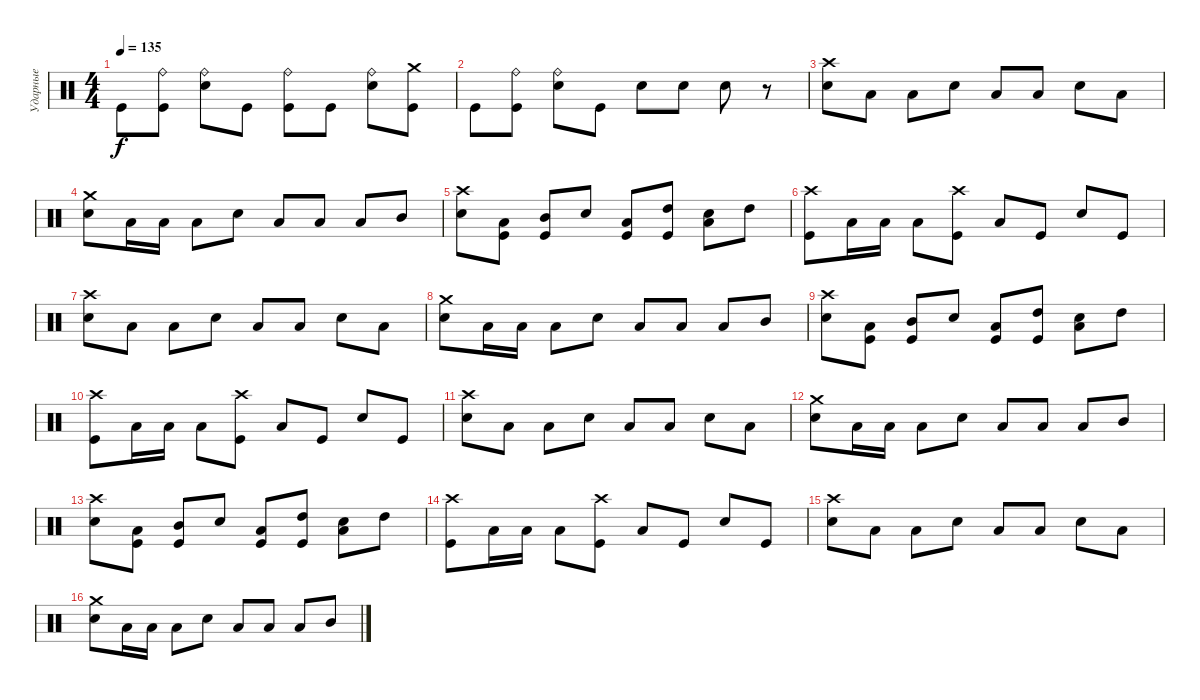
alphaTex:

\track ("Ударные" "Ударные") {instrument percussion}
\staff {score}
\articulation defaults
\ts (4 4)
\tempo 135
\clef neutral
\ks c "Kick (hit)".8{dy f}
("Ride (bell)" "Kick (hit)").8 ("Ride (bell)" "Electric Snare (hit)").8 "Kick (hit)".8 ("Ride (bell)" "Kick (hit)").8 "Kick (hit)".8 ("Ride (bell)" "Electric Snare (hit)").8 ("Crash medium (hit)" "Kick (hit)").8 |
"Kick (hit)".8 ("Ride (bell)" "Kick (hit)").8 ("Ride (bell)" "Electric Snare (hit)").8 "Kick (hit)".8 "Electric Snare (hit)".8 "Electric Snare (hit)".8 "Electric Snare (hit)".8 r.8 |
("Crash high (hit)" "Electric Snare (hit)").8 "Low Tom (hit)".8 "Low Tom (hit)".8 "Electric Snare (hit)".8 "Low Tom (hit)".8 "Low Tom (hit)".8 "Electric Snare (hit)".8 "Low Tom (hit)".8 |
("Crash medium (hit)" "Electric Snare (hit)").8 "Low Tom (hit)".16 "Low Tom (hit)".16 "Low Tom (hit)".8 "Electric Snare (hit)".8 "Low Tom (hit)".8 "Low Tom (hit)".8 "Low Tom (hit)".8 "Mid Tom (hit)".8 |
("Crash high (hit)" "Electric Snare (hit)").8 ("Low Tom (hit)" "Kick (hit)").8 ("Mid Tom (hit)" "Kick (hit)").8 "Electric Snare (hit)".8 ("Low Tom (hit)" "Kick (hit)").8 ("High Tom (hit)" "Kick (hit)").8 ("Low Tom (hit)" "Electric Snare (hit)").8 "High Tom (hit)".8 |
("Crash high (hit)" "Kick (hit)").8 "Low Tom (hit)".16 "Low Tom (hit)".16 "Low Tom (hit)".8 ("Crash high (hit)" "Kick (hit)").8 "Low Tom (hit)".8 "Kick (hit)".8 "Electric Snare (hit)".8 "Kick (hit)".8 |
("Crash high (hit)" "Electric Snare (hit)").8 "Low Tom (hit)".8 "Low Tom (hit)".8 "Electric Snare (hit)".8 "Low Tom (hit)".8 "Low Tom (hit)".8 "Electric Snare (hit)".8 "Low Tom (hit)".8 |
("Crash medium (hit)" "Electric Snare (hit)").8 "Low Tom (hit)".16 "Low Tom (hit)".16 "Low Tom (hit)".8 "Electric Snare (hit)".8 "Low Tom (hit)".8 "Low Tom (hit)".8 "Low Tom (hit)".8 "Mid Tom (hit)".8 |
("Crash high (hit)" "Electric Snare (hit)").8 ("Low Tom (hit)" "Kick (hit)").8 ("Mid Tom (hit)" "Kick (hit)").8 "Electric Snare (hit)".8 ("Low Tom (hit)" "Kick (hit)").8 ("High Tom (hit)" "Kick (hit)").8 ("Low Tom (hit)" "Electric Snare (hit)").8 "High Tom (hit)".8 |
("Crash high (hit)" "Kick (hit)").8 "Low Tom (hit)".16 "Low Tom (hit)".16 "Low Tom (hit)".8 ("Crash high (hit)" "Kick (hit)").8 "Low Tom (hit)".8 "Kick (hit)".8 "Electric Snare (hit)".8 "Kick (hit)".8 |
("Crash high (hit)" "Electric Snare (hit)").8 "Low Tom (hit)".8 "Low Tom (hit)".8 "Electric Snare (hit)".8 "Low Tom (hit)".8 "Low Tom (hit)".8 "Electric Snare (hit)".8 "Low Tom (hit)".8 |
("Crash medium (hit)" "Electric Snare (hit)").8 "Low Tom (hit)".16 "Low Tom (hit)".16 "Low Tom (hit)".8 "Electric Snare (hit)".8 "Low Tom (hit)".8 "Low Tom (hit)".8 "Low Tom (hit)".8 "Mid Tom (hit)".8 |
("Crash high (hit)" "Electric Snare (hit)").8 ("Low Tom (hit)" "Kick (hit)").8 ("Mid Tom (hit)" "Kick (hit)").8 "Electric Snare (hit)".8 ("Low Tom (hit)" "Kick (hit)").8 ("High Tom (hit)" "Kick (hit)").8 ("Low Tom (hit)" "Electric Snare (hit)").8 "High Tom (hit)".8 |
("Crash high (hit)" "Kick (hit)").8 "Low Tom (hit)".16 "Low Tom (hit)".16 "Low Tom (hit)".8 ("Crash high (hit)" "Kick (hit)").8 "Low Tom (hit)".8 "Kick (hit)".8 "Electric Snare (hit)".8 "Kick (hit)".8 |
("Crash high (hit)" "Electric Snare (hit)").8 "Low Tom (hit)".8 "Low Tom (hit)".8 "Electric Snare (hit)".8 "Low Tom (hit)".8 "Low Tom (hit)".8 "Electric Snare (hit)".8 "Low Tom (hit)".8 |
("Crash medium (hit)" "Electric Snare (hit)").8 "Low Tom (hit)".16 "Low Tom (hit)".16 "Low Tom (hit)".8 "Electric Snare (hit)".8 "Low Tom (hit)".8 "Low Tom (hit)".8 "Low Tom (hit)".8 "Mid Tom (hit)".8
